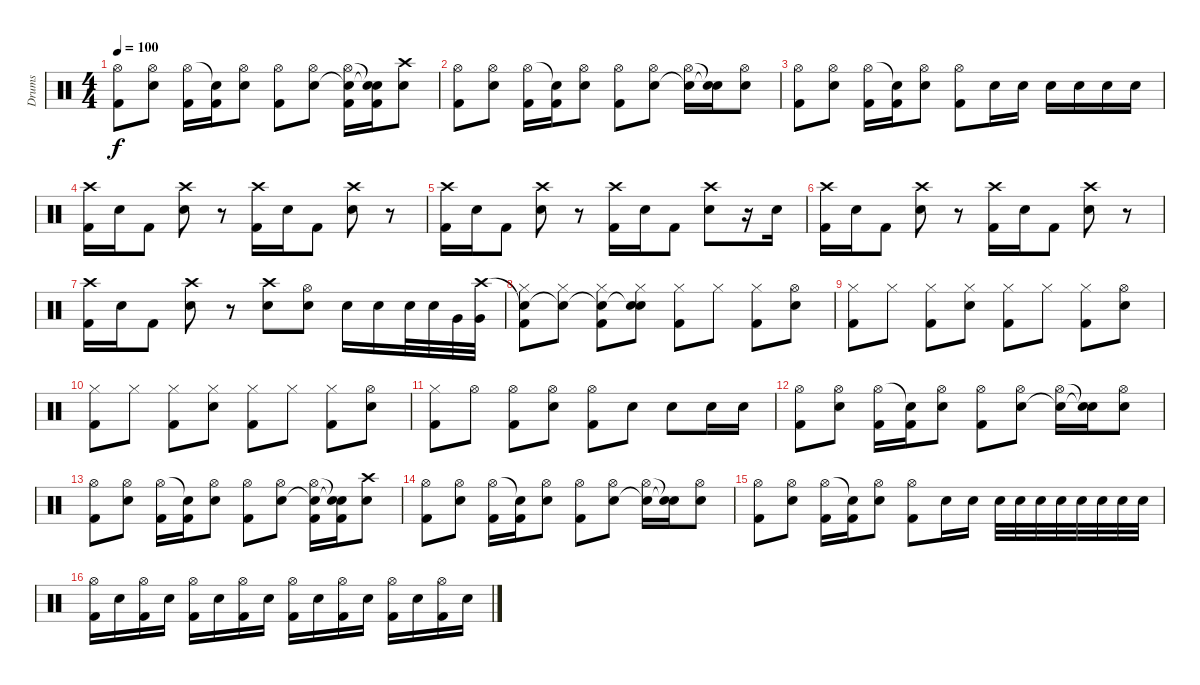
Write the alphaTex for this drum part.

\track ("Drums" "Drums") {instrument percussion}
\staff {score}
\articulation defaults
\ts (4 4)
\tempo 100
\clef neutral
\ks c
("Hi-Hat (open)" "Kick (hit) 2").8{dy f} ("Hi-Hat (open)" "Electric Snare (hit)").8 ("Hi-Hat (open)" "Kick (hit) 2").16 ("Snare (hit)"{t} "Kick (hit) 2").16 ("Hi-Hat (open)" "Electric Snare (hit)").8 ("Hi-Hat (open)" "Kick (hit) 2").8 ("Hi-Hat (open)" "Electric Snare (hit)").8 ("Hi-Hat (open)" "Snare (hit)"{t} "Kick (hit) 2").16 ("Snare (hit)"{t} "Snare (hit)"{t} "Kick (hit) 2").16 ("Crash high (hit)" "Electric Snare (hit)").8 |
("Hi-Hat (open)" "Kick (hit) 2").8 ("Hi-Hat (open)" "Electric Snare (hit)").8 ("Hi-Hat (open)" "Kick (hit) 2").16 ("Snare (hit)"{t} "Kick (hit) 2").16 ("Hi-Hat (open)" "Electric Snare (hit)").8 ("Hi-Hat (open)" "Kick (hit) 2").8 ("Hi-Hat (open)" "Electric Snare (hit)").8 ("Hi-Hat (open)" "Snare (hit)"{t}).16 ("Snare (hit)"{t} "Snare (hit)"{t}).16 ("Hi-Hat (open)" "Electric Snare (hit)").8 |
("Hi-Hat (open)" "Kick (hit) 2").8 ("Hi-Hat (open)" "Electric Snare (hit)").8 ("Hi-Hat (open)" "Kick (hit) 2").16 ("Snare (hit)"{t} "Kick (hit) 2").16 ("Hi-Hat (open)" "Electric Snare (hit)").8 ("Hi-Hat (open)" "Kick (hit) 2").8 "Electric Snare (hit)".16 "Electric Snare (hit)".16 "Electric Snare (hit)".16 "Electric Snare (hit)".16 "Electric Snare (hit)".16 "Electric Snare (hit)".16 |
("Crash high (hit)" "Kick (hit) 2").16 "Electric Snare (hit)".16 "Kick (hit) 2".8 ("Crash high (hit)" "Electric Snare (hit)").8 r.8 ("Crash high (hit)" "Kick (hit) 2").16 "Electric Snare (hit)".16 "Kick (hit) 2".8 ("Crash high (hit)" "Electric Snare (hit)").8 r.8 |
("Crash high (hit)" "Kick (hit) 2").16 "Electric Snare (hit)".16 "Kick (hit) 2".8 ("Crash high (hit)" "Electric Snare (hit)").8 r.8 ("Crash high (hit)" "Kick (hit) 2").16 "Electric Snare (hit)".16 "Kick (hit) 2".8 ("Crash high (hit)" "Electric Snare (hit)").8 r.16 "Electric Snare (hit)".16 |
("Crash high (hit)" "Kick (hit) 2").16 "Electric Snare (hit)".16 "Kick (hit) 2".8 ("Crash high (hit)" "Electric Snare (hit)").8 r.8 ("Crash high (hit)" "Kick (hit) 2").16 "Electric Snare (hit)".16 "Kick (hit) 2".8 ("Crash high (hit)" "Electric Snare (hit)").8 r.8 |
("Crash high (hit)" "Kick (hit) 2").16 "Electric Snare (hit)".16 "Kick (hit) 2".8 ("Crash high (hit)" "Electric Snare (hit)").8 r.8 ("Crash high (hit)" "Electric Snare (hit)").8 ("Hi-Hat (open)" "Electric Snare (hit)").8 "Electric Snare (hit)".16 "Electric Snare (hit)".16 "Electric Snare (hit)".32 "Electric Snare (hit)".32 "Very Low Tom (hit)".32 ("Crash high (hit)" "Very Low Tom (hit)").32 |
("Snare (hit)"{t} "Hi-Hat (closed)" "Kick (hit) 2").8 ("Snare (hit)"{t} "Hi-Hat (closed)").8 ("Snare (hit)"{t} "Hi-Hat (closed)" "Kick (hit) 2").8 ("Snare (hit)"{t} "Hi-Hat (closed)" "Electric Snare (hit)").8 ("Hi-Hat (closed)" "Kick (hit) 2").8 "Hi-Hat (closed)".8 ("Hi-Hat (closed)" "Kick (hit) 2").8 ("Hi-Hat (open)" "Electric Snare (hit)").8 |
("Hi-Hat (closed)" "Kick (hit) 2").8 "Hi-Hat (closed)".8 ("Hi-Hat (closed)" "Kick (hit) 2").8 ("Hi-Hat (closed)" "Electric Snare (hit)").8 ("Hi-Hat (closed)" "Kick (hit) 2").8 "Hi-Hat (closed)".8 ("Hi-Hat (closed)" "Kick (hit) 2").8 ("Hi-Hat (open)" "Electric Snare (hit)").8 |
("Hi-Hat (closed)" "Kick (hit) 2").8 "Hi-Hat (closed)".8 ("Hi-Hat (closed)" "Kick (hit) 2").8 ("Hi-Hat (closed)" "Electric Snare (hit)").8 ("Hi-Hat (closed)" "Kick (hit) 2").8 "Hi-Hat (closed)".8 ("Hi-Hat (closed)" "Kick (hit) 2").8 ("Hi-Hat (open)" "Electric Snare (hit)").8 |
("Hi-Hat (closed)" "Kick (hit) 2").8 "Hi-Hat (open)".8 ("Hi-Hat (open)" "Kick (hit) 2").8 ("Hi-Hat (open)" "Electric Snare (hit)").8 ("Hi-Hat (open)" "Kick (hit) 2").8 "Electric Snare (hit)".8 "Electric Snare (hit)".8 "Electric Snare (hit)".16 "Electric Snare (hit)".16 |
("Hi-Hat (open)" "Kick (hit) 2").8 ("Hi-Hat (open)" "Electric Snare (hit)").8 ("Hi-Hat (open)" "Kick (hit) 2").16 ("Snare (hit)"{t} "Kick (hit) 2").16 ("Hi-Hat (open)" "Electric Snare (hit)").8 ("Hi-Hat (open)" "Kick (hit) 2").8 ("Hi-Hat (open)" "Electric Snare (hit)").8 ("Hi-Hat (open)" "Snare (hit)"{t}).16 ("Snare (hit)"{t} "Snare (hit)"{t}).16 ("Hi-Hat (open)" "Electric Snare (hit)").8 |
("Hi-Hat (open)" "Kick (hit) 2").8 ("Hi-Hat (open)" "Electric Snare (hit)").8 ("Hi-Hat (open)" "Kick (hit) 2").16 ("Snare (hit)"{t} "Kick (hit) 2").16 ("Hi-Hat (open)" "Electric Snare (hit)").8 ("Hi-Hat (open)" "Kick (hit) 2").8 ("Hi-Hat (open)" "Electric Snare (hit)").8 ("Hi-Hat (open)" "Snare (hit)"{t} "Kick (hit) 2").16 ("Snare (hit)"{t} "Snare (hit)"{t} "Kick (hit) 2").16 ("Crash high (hit)" "Electric Snare (hit)").8 |
("Hi-Hat (open)" "Kick (hit) 2").8 ("Hi-Hat (open)" "Electric Snare (hit)").8 ("Hi-Hat (open)" "Kick (hit) 2").16 ("Snare (hit)"{t} "Kick (hit) 2").16 ("Hi-Hat (open)" "Electric Snare (hit)").8 ("Hi-Hat (open)" "Kick (hit) 2").8 ("Hi-Hat (open)" "Electric Snare (hit)").8 ("Hi-Hat (open)" "Snare (hit)"{t}).16 ("Snare (hit)"{t} "Snare (hit)"{t}).16 ("Hi-Hat (open)" "Electric Snare (hit)").8 |
("Hi-Hat (open)" "Kick (hit) 2").8 ("Hi-Hat (open)" "Electric Snare (hit)").8 ("Hi-Hat (open)" "Kick (hit) 2").16 ("Snare (hit)"{t} "Kick (hit) 2").16 ("Hi-Hat (open)" "Electric Snare (hit)").8 ("Hi-Hat (open)" "Kick (hit) 2").8 "Electric Snare (hit)".16 "Electric Snare (hit)".16 "Electric Snare (hit)".32 "Electric Snare (hit)".32 "Electric Snare (hit)".32 "Electric Snare (hit)".32 "Electric Snare (hit)".32 "Electric Snare (hit)".32 "Electric Snare (hit)".32 "Electric Snare (hit)".32 |
("Hi-Hat (open)" "Kick (hit) 2").16 "Electric Snare (hit)".16 ("Hi-Hat (open)" "Kick (hit) 2").16 "Electric Snare (hit)".16 ("Hi-Hat (open)" "Kick (hit) 2").16 "Electric Snare (hit)".16 ("Hi-Hat (open)" "Kick (hit) 2").16 "Electric Snare (hit)".16 ("Hi-Hat (open)" "Kick (hit) 2").16 "Electric Snare (hit)".16 ("Hi-Hat (open)" "Kick (hit) 2").16 "Electric Snare (hit)".16 ("Hi-Hat (open)" "Kick (hit) 2").16 "Electric Snare (hit)".16 ("Hi-Hat (open)" "Kick (hit) 2").16 "Electric Snare (hit)".16
